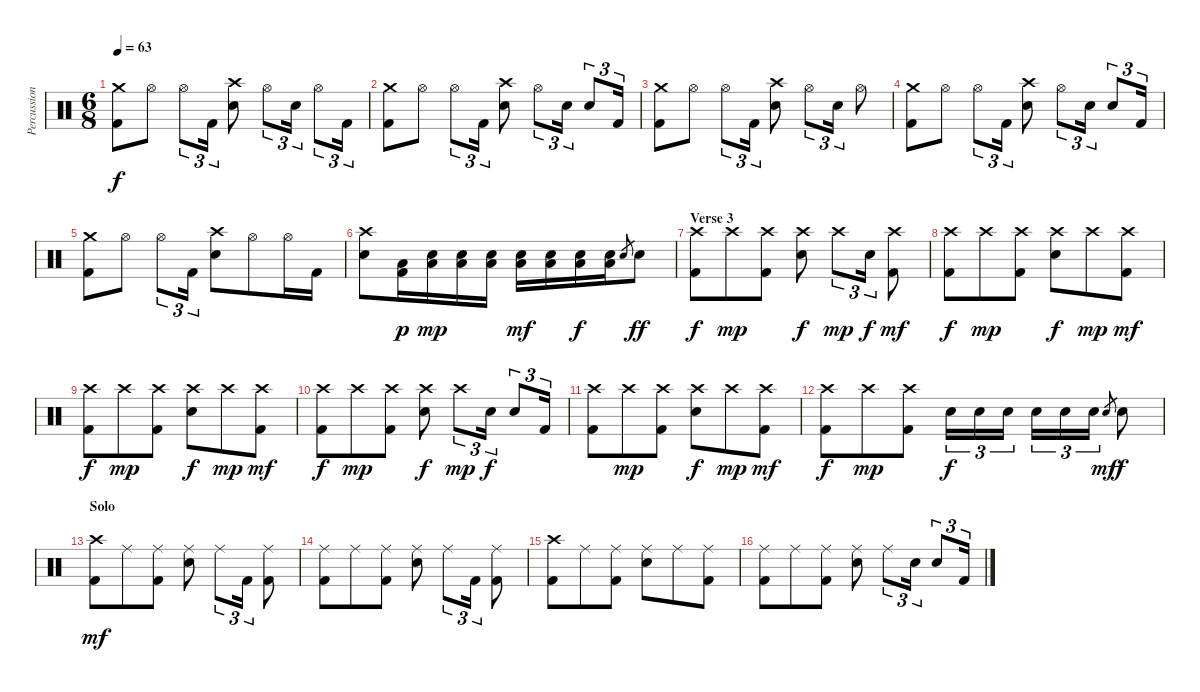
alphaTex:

\track ("Percussion" "Percussion") {instrument percussion}
\staff {score}
\articulation defaults
\ts (6 8)
\tempo 63
\clef neutral
\ks c
("Crash medium (hit)" "Kick (hit) 2").8{dy f} "Hi-Hat (open)".8 "Hi-Hat (open)".8{tu (3 2)} "Kick (hit) 2".16{tu (3 2)} ("Crash high (hit)" "Electric Snare (hit)").8 "Hi-Hat (open)".8{tu (3 2)} "Electric Snare (hit)".16{tu (3 2)} "Hi-Hat (open)".8{tu (3 2)} "Kick (hit) 2".16{tu (3 2)} |
("Crash medium (hit)" "Kick (hit) 2").8 "Hi-Hat (open)".8 "Hi-Hat (open)".8{tu (3 2)} "Kick (hit) 2".16{tu (3 2)} ("Crash high (hit)" "Electric Snare (hit)").8 "Hi-Hat (open)".8{tu (3 2)} "Electric Snare (hit)".16{tu (3 2)} "Electric Snare (hit)".8{tu (3 2)} "Kick (hit) 2".16{tu (3 2)} |
("Crash medium (hit)" "Kick (hit) 2").8 "Hi-Hat (open)".8 "Hi-Hat (open)".8{tu (3 2)} "Kick (hit) 2".16{tu (3 2)} ("Crash high (hit)" "Electric Snare (hit)").8 "Hi-Hat (open)".8{tu (3 2)} "Electric Snare (hit)".16{tu (3 2)} "Hi-Hat (open)".8 |
("Crash medium (hit)" "Kick (hit) 2").8 "Hi-Hat (open)".8 "Hi-Hat (open)".8{tu (3 2)} "Kick (hit) 2".16{tu (3 2)} ("Crash high (hit)" "Electric Snare (hit)").8 "Hi-Hat (open)".8{tu (3 2)} "Electric Snare (hit)".16{tu (3 2)} "Electric Snare (hit)".8{tu (3 2)} "Kick (hit) 2".16{tu (3 2)} |
("Crash medium (hit)" "Kick (hit) 2").8 "Hi-Hat (open)".8 "Hi-Hat (open)".8{tu (3 2)} "Kick (hit) 2".16{tu (3 2)} ("Crash high (hit)" "Electric Snare (hit)").8 "Hi-Hat (open)".8 "Hi-Hat (open)".16 "Kick (hit) 2".16 |
("Crash high (hit)" "Electric Snare (hit)").8 ("Low Floor Tom (hit)" "Kick (hit) 2").16{dy p} ("Electric Snare (hit)" "Low Floor Tom (hit)").16{dy mp} ("Electric Snare (hit)" "Low Floor Tom (hit)").16 ("Electric Snare (hit)" "Low Floor Tom (hit)").16 ("Electric Snare (hit)" "Low Floor Tom (hit)").16{dy mf} ("Electric Snare (hit)" "Low Floor Tom (hit)").16 ("Electric Snare (hit)" "Low Floor Tom (hit)").16{dy f} ("Electric Snare (hit)" "Low Floor Tom (hit)").16 "Electric Snare (hit)".8{gr} "Electric Snare (hit)".8{dy ff} |
\section ("" "Verse 3")
("Crash high (hit)" "Kick (hit) 2").8{dy f} "Crash high (hit)".8{dy mp} ("Crash high (hit)" "Kick (hit) 2").8 ("Crash high (hit)" "Electric Snare (hit)").8{dy f} "Crash high (hit)".8{tu (3 2) dy mp} "Electric Snare (hit)".16{tu (3 2) dy f} ("Crash high (hit)" "Kick (hit) 2").8{dy mf} |
("Crash high (hit)" "Kick (hit) 2").8{dy f} "Crash high (hit)".8{dy mp} ("Crash high (hit)" "Kick (hit) 2").8 ("Crash high (hit)" "Electric Snare (hit)").8{dy f} "Crash high (hit)".8{dy mp} ("Crash high (hit)" "Kick (hit) 2").8{dy mf} |
("Crash high (hit)" "Kick (hit) 2").8{dy f} "Crash high (hit)".8{dy mp} ("Crash high (hit)" "Kick (hit) 2").8 ("Crash high (hit)" "Electric Snare (hit)").8{dy f} "Crash high (hit)".8{dy mp} ("Crash high (hit)" "Kick (hit) 2").8{dy mf} |
("Crash high (hit)" "Kick (hit) 2").8{dy f} "Crash high (hit)".8{dy mp} ("Crash high (hit)" "Kick (hit) 2").8 ("Crash high (hit)" "Electric Snare (hit)").8{dy f} "Crash high (hit)".8{tu (3 2) dy mp} "Electric Snare (hit)".16{tu (3 2) dy f} "Electric Snare (hit)".8{tu (3 2)} "Kick (hit) 2".16{tu (3 2)} |
("Crash high (hit)" "Kick (hit) 2").8 "Crash high (hit)".8{dy mp} ("Crash high (hit)" "Kick (hit) 2").8 ("Crash high (hit)" "Electric Snare (hit)").8{dy f} "Crash high (hit)".8{dy mp} ("Crash high (hit)" "Kick (hit) 2").8{dy mf} |
("Crash high (hit)" "Kick (hit) 2").8{dy f} "Crash high (hit)".8{dy mp} ("Crash high (hit)" "Kick (hit) 2").8 "Electric Snare (hit)".16{tu (3 2) dy f} "Electric Snare (hit)".16{tu (3 2)} "Electric Snare (hit)".16{tu (3 2)} "Electric Snare (hit)".16{tu (3 2)} "Electric Snare (hit)".16{tu (3 2)} "Electric Snare (hit)".16{tu (3 2)} "Electric Snare (hit)".8{gr dy mf} "Electric Snare (hit)".8{dy f} |
\section ("" "Solo")
("Crash high (hit)" "Kick (hit) 2").8{dy mf} "Ride (middle)".8 ("Ride (middle)" "Kick (hit) 2").8 ("Ride (middle)" "Electric Snare (hit)").8 "Ride (middle)".8{tu (3 2)} "Kick (hit) 2".16{tu (3 2)} ("Ride (middle)" "Kick (hit) 2").8 |
("Ride (middle)" "Kick (hit) 2").8 "Ride (middle)".8 ("Ride (middle)" "Kick (hit) 2").8 ("Ride (middle)" "Electric Snare (hit)").8 "Ride (middle)".8{tu (3 2)} "Kick (hit) 2".16{tu (3 2)} ("Ride (middle)" "Kick (hit) 2").8 |
("Crash high (hit)" "Kick (hit) 2").8 "Ride (middle)".8 ("Ride (middle)" "Kick (hit) 2").8 ("Ride (middle)" "Electric Snare (hit)").8 "Ride (middle)".8 ("Ride (middle)" "Kick (hit) 2").8 |
("Ride (middle)" "Kick (hit) 2").8 "Ride (middle)".8 ("Ride (middle)" "Kick (hit) 2").8 ("Ride (middle)" "Electric Snare (hit)").8 "Ride (middle)".8{tu (3 2)} "Electric Snare (hit)".16{tu (3 2)} "Electric Snare (hit)".8{tu (3 2)} "Kick (hit) 2".16{tu (3 2)}
